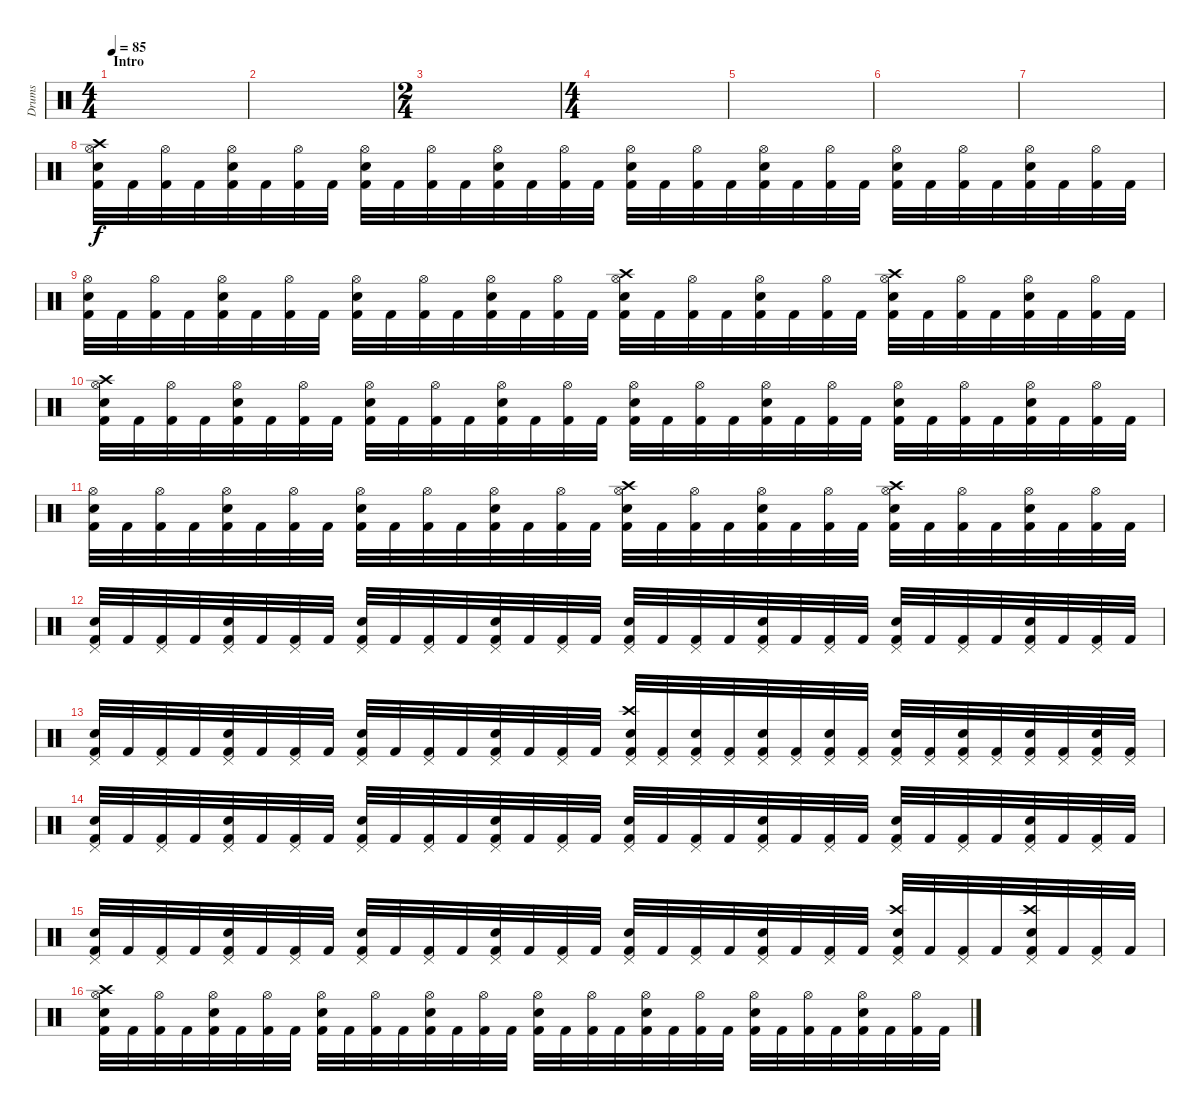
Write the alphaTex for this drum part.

\track ("Drums" "Drums") {instrument percussion}
\staff {score}
\articulation defaults
\ts (4 4)
\section ("" "Intro")
\tempo 85
\clef neutral
\ks c
|
|
\ts (2 4)
|
\ts (4 4)
|
|
|
|
("Hi-Hat (open)" "Electric Snare (hit)" "Crash high (hit)" "Kick (hit) 2").32 "Kick (hit) 2".32 ("Hi-Hat (open)" "Kick (hit) 2").32 "Kick (hit) 2".32 ("Hi-Hat (open)" "Electric Snare (hit)" "Kick (hit) 2").32 "Kick (hit) 2".32 ("Hi-Hat (open)" "Kick (hit) 2").32 "Kick (hit) 2".32 ("Hi-Hat (open)" "Electric Snare (hit)" "Kick (hit) 2").32 "Kick (hit) 2".32 ("Hi-Hat (open)" "Kick (hit) 2").32 "Kick (hit) 2".32 ("Hi-Hat (open)" "Electric Snare (hit)" "Kick (hit) 2").32 "Kick (hit) 2".32 ("Hi-Hat (open)" "Kick (hit) 2").32 "Kick (hit) 2".32 ("Hi-Hat (open)" "Electric Snare (hit)" "Kick (hit) 2").32 "Kick (hit) 2".32 ("Hi-Hat (open)" "Kick (hit) 2").32 "Kick (hit) 2".32 ("Hi-Hat (open)" "Electric Snare (hit)" "Kick (hit) 2").32 "Kick (hit) 2".32 ("Hi-Hat (open)" "Kick (hit) 2").32 "Kick (hit) 2".32 ("Hi-Hat (open)" "Electric Snare (hit)" "Kick (hit) 2").32 "Kick (hit) 2".32 ("Hi-Hat (open)" "Kick (hit) 2").32 "Kick (hit) 2".32 ("Hi-Hat (open)" "Electric Snare (hit)" "Kick (hit) 2").32 "Kick (hit) 2".32 ("Hi-Hat (open)" "Kick (hit) 2").32 "Kick (hit) 2".32 |
("Hi-Hat (open)" "Electric Snare (hit)" "Kick (hit) 2").32 "Kick (hit) 2".32 ("Hi-Hat (open)" "Kick (hit) 2").32 "Kick (hit) 2".32 ("Hi-Hat (open)" "Electric Snare (hit)" "Kick (hit) 2").32 "Kick (hit) 2".32 ("Hi-Hat (open)" "Kick (hit) 2").32 "Kick (hit) 2".32 ("Hi-Hat (open)" "Electric Snare (hit)" "Kick (hit) 2").32 "Kick (hit) 2".32 ("Hi-Hat (open)" "Kick (hit) 2").32 "Kick (hit) 2".32 ("Hi-Hat (open)" "Electric Snare (hit)" "Kick (hit) 2").32 "Kick (hit) 2".32 ("Hi-Hat (open)" "Kick (hit) 2").32 "Kick (hit) 2".32 ("Hi-Hat (open)" "Electric Snare (hit)" "Crash high (hit)" "Kick (hit) 2").32 "Kick (hit) 2".32 ("Hi-Hat (open)" "Kick (hit) 2").32 "Kick (hit) 2".32 ("Hi-Hat (open)" "Electric Snare (hit)" "Kick (hit) 2").32 "Kick (hit) 2".32 ("Hi-Hat (open)" "Kick (hit) 2").32 "Kick (hit) 2".32 ("Hi-Hat (open)" "Electric Snare (hit)" "Crash high (hit)" "Kick (hit) 2").32 "Kick (hit) 2".32 ("Hi-Hat (open)" "Kick (hit) 2").32 "Kick (hit) 2".32 ("Hi-Hat (open)" "Electric Snare (hit)" "Kick (hit) 2").32 "Kick (hit) 2".32 ("Hi-Hat (open)" "Kick (hit) 2").32 "Kick (hit) 2".32 |
("Hi-Hat (open)" "Electric Snare (hit)" "Crash high (hit)" "Kick (hit) 2").32 "Kick (hit) 2".32 ("Hi-Hat (open)" "Kick (hit) 2").32 "Kick (hit) 2".32 ("Hi-Hat (open)" "Electric Snare (hit)" "Kick (hit) 2").32 "Kick (hit) 2".32 ("Hi-Hat (open)" "Kick (hit) 2").32 "Kick (hit) 2".32 ("Hi-Hat (open)" "Electric Snare (hit)" "Kick (hit) 2").32 "Kick (hit) 2".32 ("Hi-Hat (open)" "Kick (hit) 2").32 "Kick (hit) 2".32 ("Hi-Hat (open)" "Electric Snare (hit)" "Kick (hit) 2").32 "Kick (hit) 2".32 ("Hi-Hat (open)" "Kick (hit) 2").32 "Kick (hit) 2".32 ("Hi-Hat (open)" "Electric Snare (hit)" "Kick (hit) 2").32 "Kick (hit) 2".32 ("Hi-Hat (open)" "Kick (hit) 2").32 "Kick (hit) 2".32 ("Hi-Hat (open)" "Electric Snare (hit)" "Kick (hit) 2").32 "Kick (hit) 2".32 ("Hi-Hat (open)" "Kick (hit) 2").32 "Kick (hit) 2".32 ("Hi-Hat (open)" "Electric Snare (hit)" "Kick (hit) 2").32 "Kick (hit) 2".32 ("Hi-Hat (open)" "Kick (hit) 2").32 "Kick (hit) 2".32 ("Hi-Hat (open)" "Electric Snare (hit)" "Kick (hit) 2").32 "Kick (hit) 2".32 ("Hi-Hat (open)" "Kick (hit) 2").32 "Kick (hit) 2".32 |
("Hi-Hat (open)" "Electric Snare (hit)" "Kick (hit) 2").32 "Kick (hit) 2".32 ("Hi-Hat (open)" "Kick (hit) 2").32 "Kick (hit) 2".32 ("Hi-Hat (open)" "Electric Snare (hit)" "Kick (hit) 2").32 "Kick (hit) 2".32 ("Hi-Hat (open)" "Kick (hit) 2").32 "Kick (hit) 2".32 ("Hi-Hat (open)" "Electric Snare (hit)" "Kick (hit) 2").32 "Kick (hit) 2".32 ("Hi-Hat (open)" "Kick (hit) 2").32 "Kick (hit) 2".32 ("Hi-Hat (open)" "Electric Snare (hit)" "Kick (hit) 2").32 "Kick (hit) 2".32 ("Hi-Hat (open)" "Kick (hit) 2").32 "Kick (hit) 2".32 ("Hi-Hat (open)" "Electric Snare (hit)" "Crash high (hit)" "Kick (hit) 2").32 "Kick (hit) 2".32 ("Hi-Hat (open)" "Kick (hit) 2").32 "Kick (hit) 2".32 ("Hi-Hat (open)" "Electric Snare (hit)" "Kick (hit) 2").32 "Kick (hit) 2".32 ("Hi-Hat (open)" "Kick (hit) 2").32 "Kick (hit) 2".32 ("Hi-Hat (open)" "Electric Snare (hit)" "Crash high (hit)" "Kick (hit) 2").32 "Kick (hit) 2".32 ("Hi-Hat (open)" "Kick (hit) 2").32 "Kick (hit) 2".32 ("Hi-Hat (open)" "Electric Snare (hit)" "Kick (hit) 2").32 "Kick (hit) 2".32 ("Hi-Hat (open)" "Kick (hit) 2").32 "Kick (hit) 2".32 |
("Pedal Hi-Hat (hit)" "Electric Snare (hit)" "Kick (hit) 2").32 "Kick (hit) 2".32 ("Pedal Hi-Hat (hit)" "Kick (hit) 2").32 "Kick (hit) 2".32 ("Pedal Hi-Hat (hit)" "Electric Snare (hit)" "Kick (hit) 2").32 "Kick (hit) 2".32 ("Pedal Hi-Hat (hit)" "Kick (hit) 2").32 "Kick (hit) 2".32 ("Pedal Hi-Hat (hit)" "Electric Snare (hit)" "Kick (hit) 2").32 "Kick (hit) 2".32 ("Pedal Hi-Hat (hit)" "Kick (hit) 2").32 "Kick (hit) 2".32 ("Pedal Hi-Hat (hit)" "Electric Snare (hit)" "Kick (hit) 2").32 "Kick (hit) 2".32 ("Pedal Hi-Hat (hit)" "Kick (hit) 2").32 "Kick (hit) 2".32 ("Pedal Hi-Hat (hit)" "Electric Snare (hit)" "Kick (hit) 2").32 "Kick (hit) 2".32 ("Pedal Hi-Hat (hit)" "Kick (hit) 2").32 "Kick (hit) 2".32 ("Pedal Hi-Hat (hit)" "Electric Snare (hit)" "Kick (hit) 2").32 "Kick (hit) 2".32 ("Pedal Hi-Hat (hit)" "Kick (hit) 2").32 "Kick (hit) 2".32 ("Pedal Hi-Hat (hit)" "Electric Snare (hit)" "Kick (hit) 2").32 "Kick (hit) 2".32 ("Pedal Hi-Hat (hit)" "Kick (hit) 2").32 "Kick (hit) 2".32 ("Pedal Hi-Hat (hit)" "Electric Snare (hit)" "Kick (hit) 2").32 "Kick (hit) 2".32 ("Pedal Hi-Hat (hit)" "Kick (hit) 2").32 "Kick (hit) 2".32 |
("Pedal Hi-Hat (hit)" "Electric Snare (hit)" "Kick (hit) 2").32 "Kick (hit) 2".32 ("Pedal Hi-Hat (hit)" "Kick (hit) 2").32 "Kick (hit) 2".32 ("Pedal Hi-Hat (hit)" "Electric Snare (hit)" "Kick (hit) 2").32 "Kick (hit) 2".32 ("Pedal Hi-Hat (hit)" "Kick (hit) 2").32 "Kick (hit) 2".32 ("Pedal Hi-Hat (hit)" "Electric Snare (hit)" "Kick (hit) 2").32 "Kick (hit) 2".32 ("Pedal Hi-Hat (hit)" "Kick (hit) 2").32 "Kick (hit) 2".32 ("Pedal Hi-Hat (hit)" "Electric Snare (hit)" "Kick (hit) 2").32 "Kick (hit) 2".32 ("Pedal Hi-Hat (hit)" "Kick (hit) 2").32 "Kick (hit) 2".32 ("Pedal Hi-Hat (hit)" "Electric Snare (hit)" "Crash high (hit)" "Kick (hit) 2").32 ("Pedal Hi-Hat (hit)" "Kick (hit) 2").32 ("Pedal Hi-Hat (hit)" "Electric Snare (hit)" "Kick (hit) 2").32 ("Pedal Hi-Hat (hit)" "Kick (hit) 2").32 ("Pedal Hi-Hat (hit)" "Electric Snare (hit)" "Kick (hit) 2").32 ("Pedal Hi-Hat (hit)" "Kick (hit) 2").32 ("Pedal Hi-Hat (hit)" "Electric Snare (hit)" "Kick (hit) 2").32 ("Pedal Hi-Hat (hit)" "Kick (hit) 2").32 ("Pedal Hi-Hat (hit)" "Electric Snare (hit)" "Kick (hit) 2").32 ("Pedal Hi-Hat (hit)" "Kick (hit) 2").32 ("Pedal Hi-Hat (hit)" "Electric Snare (hit)" "Kick (hit) 2").32 ("Pedal Hi-Hat (hit)" "Kick (hit) 2").32 ("Pedal Hi-Hat (hit)" "Electric Snare (hit)" "Kick (hit) 2").32 ("Pedal Hi-Hat (hit)" "Kick (hit) 2").32 ("Pedal Hi-Hat (hit)" "Electric Snare (hit)" "Kick (hit) 2").32 ("Pedal Hi-Hat (hit)" "Kick (hit) 2").32 |
("Pedal Hi-Hat (hit)" "Electric Snare (hit)" "Kick (hit) 2").32 "Kick (hit) 2".32 ("Pedal Hi-Hat (hit)" "Kick (hit) 2").32 "Kick (hit) 2".32 ("Pedal Hi-Hat (hit)" "Electric Snare (hit)" "Kick (hit) 2").32 "Kick (hit) 2".32 ("Pedal Hi-Hat (hit)" "Kick (hit) 2").32 "Kick (hit) 2".32 ("Pedal Hi-Hat (hit)" "Electric Snare (hit)" "Kick (hit) 2").32 "Kick (hit) 2".32 ("Pedal Hi-Hat (hit)" "Kick (hit) 2").32 "Kick (hit) 2".32 ("Pedal Hi-Hat (hit)" "Electric Snare (hit)" "Kick (hit) 2").32 "Kick (hit) 2".32 ("Pedal Hi-Hat (hit)" "Kick (hit) 2").32 "Kick (hit) 2".32 ("Pedal Hi-Hat (hit)" "Electric Snare (hit)" "Kick (hit) 2").32 "Kick (hit) 2".32 ("Pedal Hi-Hat (hit)" "Kick (hit) 2").32 "Kick (hit) 2".32 ("Pedal Hi-Hat (hit)" "Electric Snare (hit)" "Kick (hit) 2").32 "Kick (hit) 2".32 ("Pedal Hi-Hat (hit)" "Kick (hit) 2").32 "Kick (hit) 2".32 ("Pedal Hi-Hat (hit)" "Electric Snare (hit)" "Kick (hit) 2").32 "Kick (hit) 2".32 ("Pedal Hi-Hat (hit)" "Kick (hit) 2").32 "Kick (hit) 2".32 ("Pedal Hi-Hat (hit)" "Electric Snare (hit)" "Kick (hit) 2").32 "Kick (hit) 2".32 ("Pedal Hi-Hat (hit)" "Kick (hit) 2").32 "Kick (hit) 2".32 |
("Pedal Hi-Hat (hit)" "Electric Snare (hit)" "Kick (hit) 2").32 "Kick (hit) 2".32 ("Pedal Hi-Hat (hit)" "Kick (hit) 2").32 "Kick (hit) 2".32 ("Pedal Hi-Hat (hit)" "Electric Snare (hit)" "Kick (hit) 2").32 "Kick (hit) 2".32 ("Pedal Hi-Hat (hit)" "Kick (hit) 2").32 "Kick (hit) 2".32 ("Pedal Hi-Hat (hit)" "Electric Snare (hit)" "Kick (hit) 2").32 "Kick (hit) 2".32 ("Pedal Hi-Hat (hit)" "Kick (hit) 2").32 "Kick (hit) 2".32 ("Pedal Hi-Hat (hit)" "Electric Snare (hit)" "Kick (hit) 2").32 "Kick (hit) 2".32 ("Pedal Hi-Hat (hit)" "Kick (hit) 2").32 "Kick (hit) 2".32 ("Pedal Hi-Hat (hit)" "Electric Snare (hit)" "Kick (hit) 2").32 "Kick (hit) 2".32 ("Pedal Hi-Hat (hit)" "Kick (hit) 2").32 "Kick (hit) 2".32 ("Pedal Hi-Hat (hit)" "Electric Snare (hit)" "Kick (hit) 2").32 "Kick (hit) 2".32 ("Pedal Hi-Hat (hit)" "Kick (hit) 2").32 "Kick (hit) 2".32 ("Pedal Hi-Hat (hit)" "Electric Snare (hit)" "Crash high (hit)" "Kick (hit) 2").32 "Kick (hit) 2".32 ("Pedal Hi-Hat (hit)" "Kick (hit) 2").32 "Kick (hit) 2".32 ("Pedal Hi-Hat (hit)" "Electric Snare (hit)" "Crash high (hit)" "Kick (hit) 2").32 "Kick (hit) 2".32 ("Pedal Hi-Hat (hit)" "Kick (hit) 2").32 "Kick (hit) 2".32 |
("Hi-Hat (open)" "Electric Snare (hit)" "Crash high (hit)" "Kick (hit) 2").32 "Kick (hit) 2".32 ("Hi-Hat (open)" "Kick (hit) 2").32 "Kick (hit) 2".32 ("Hi-Hat (open)" "Electric Snare (hit)" "Kick (hit) 2").32 "Kick (hit) 2".32 ("Hi-Hat (open)" "Kick (hit) 2").32 "Kick (hit) 2".32 ("Hi-Hat (open)" "Electric Snare (hit)" "Kick (hit) 2").32 "Kick (hit) 2".32 ("Hi-Hat (open)" "Kick (hit) 2").32 "Kick (hit) 2".32 ("Hi-Hat (open)" "Electric Snare (hit)" "Kick (hit) 2").32 "Kick (hit) 2".32 ("Hi-Hat (open)" "Kick (hit) 2").32 "Kick (hit) 2".32 ("Hi-Hat (open)" "Electric Snare (hit)" "Kick (hit) 2").32 "Kick (hit) 2".32 ("Hi-Hat (open)" "Kick (hit) 2").32 "Kick (hit) 2".32 ("Hi-Hat (open)" "Electric Snare (hit)" "Kick (hit) 2").32 "Kick (hit) 2".32 ("Hi-Hat (open)" "Kick (hit) 2").32 "Kick (hit) 2".32 ("Hi-Hat (open)" "Electric Snare (hit)" "Kick (hit) 2").32 "Kick (hit) 2".32 ("Hi-Hat (open)" "Kick (hit) 2").32 "Kick (hit) 2".32 ("Hi-Hat (open)" "Electric Snare (hit)" "Kick (hit) 2").32 "Kick (hit) 2".32 ("Hi-Hat (open)" "Kick (hit) 2").32 "Kick (hit) 2".32
